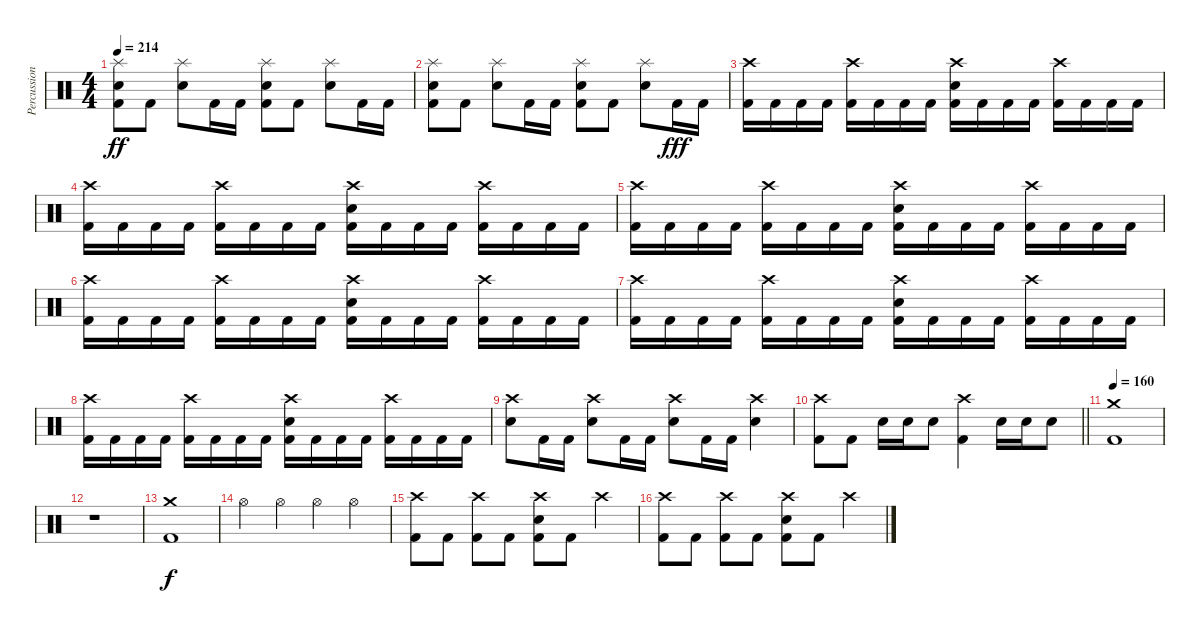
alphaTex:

\track ("Percussion" "Percussion") {instrument percussion}
\staff {score}
\articulation defaults
\ts (4 4)
\tempo 214
\clef neutral
\ks c
("Splash (hit)" "Electric Snare (hit)" "Kick (hit) 2").8{dy ff} "Kick (hit) 2".8 ("Splash (hit)" "Electric Snare (hit)").8 "Kick (hit) 2".16 "Kick (hit) 2".16 ("Splash (hit)" "Electric Snare (hit)" "Kick (hit) 2").8 "Kick (hit) 2".8 ("Splash (hit)" "Electric Snare (hit)").8 "Kick (hit) 2".16 "Kick (hit) 2".16 |
("Splash (hit)" "Electric Snare (hit)" "Kick (hit) 2").8 "Kick (hit) 2".8 ("Splash (hit)" "Electric Snare (hit)").8 "Kick (hit) 2".16 "Kick (hit) 2".16 ("Splash (hit)" "Electric Snare (hit)" "Kick (hit) 2").8 "Kick (hit) 2".8 ("Splash (hit)" "Electric Snare (hit)").8 "Kick (hit) 2".16{dy fff} "Kick (hit) 2".16 |
("Crash high (hit)" "Kick (hit) 2").16 "Kick (hit) 2".16 "Kick (hit) 2".16 "Kick (hit) 2".16 ("Crash high (hit)" "Kick (hit) 2").16 "Kick (hit) 2".16 "Kick (hit) 2".16 "Kick (hit) 2".16 ("Crash high (hit)" "Electric Snare (hit)" "Kick (hit) 2").16 "Kick (hit) 2".16 "Kick (hit) 2".16 "Kick (hit) 2".16 ("Crash high (hit)" "Kick (hit) 2").16 "Kick (hit) 2".16 "Kick (hit) 2".16 "Kick (hit) 2".16 |
("Crash high (hit)" "Kick (hit) 2").16 "Kick (hit) 2".16 "Kick (hit) 2".16 "Kick (hit) 2".16 ("Crash high (hit)" "Kick (hit) 2").16 "Kick (hit) 2".16 "Kick (hit) 2".16 "Kick (hit) 2".16 ("Crash high (hit)" "Electric Snare (hit)" "Kick (hit) 2").16 "Kick (hit) 2".16 "Kick (hit) 2".16 "Kick (hit) 2".16 ("Crash high (hit)" "Kick (hit) 2").16 "Kick (hit) 2".16 "Kick (hit) 2".16 "Kick (hit) 2".16 |
("Crash high (hit)" "Kick (hit) 2").16 "Kick (hit) 2".16 "Kick (hit) 2".16 "Kick (hit) 2".16 ("Crash high (hit)" "Kick (hit) 2").16 "Kick (hit) 2".16 "Kick (hit) 2".16 "Kick (hit) 2".16 ("Crash high (hit)" "Electric Snare (hit)" "Kick (hit) 2").16 "Kick (hit) 2".16 "Kick (hit) 2".16 "Kick (hit) 2".16 ("Crash high (hit)" "Kick (hit) 2").16 "Kick (hit) 2".16 "Kick (hit) 2".16 "Kick (hit) 2".16 |
("Crash high (hit)" "Kick (hit) 2").16 "Kick (hit) 2".16 "Kick (hit) 2".16 "Kick (hit) 2".16 ("Crash high (hit)" "Kick (hit) 2").16 "Kick (hit) 2".16 "Kick (hit) 2".16 "Kick (hit) 2".16 ("Crash high (hit)" "Electric Snare (hit)" "Kick (hit) 2").16 "Kick (hit) 2".16 "Kick (hit) 2".16 "Kick (hit) 2".16 ("Crash high (hit)" "Kick (hit) 2").16 "Kick (hit) 2".16 "Kick (hit) 2".16 "Kick (hit) 2".16 |
("Crash high (hit)" "Kick (hit) 2").16 "Kick (hit) 2".16 "Kick (hit) 2".16 "Kick (hit) 2".16 ("Crash high (hit)" "Kick (hit) 2").16 "Kick (hit) 2".16 "Kick (hit) 2".16 "Kick (hit) 2".16 ("Crash high (hit)" "Electric Snare (hit)" "Kick (hit) 2").16 "Kick (hit) 2".16 "Kick (hit) 2".16 "Kick (hit) 2".16 ("Crash high (hit)" "Kick (hit) 2").16 "Kick (hit) 2".16 "Kick (hit) 2".16 "Kick (hit) 2".16 |
("Crash high (hit)" "Kick (hit) 2").16 "Kick (hit) 2".16 "Kick (hit) 2".16 "Kick (hit) 2".16 ("Crash high (hit)" "Kick (hit) 2").16 "Kick (hit) 2".16 "Kick (hit) 2".16 "Kick (hit) 2".16 ("Crash high (hit)" "Electric Snare (hit)" "Kick (hit) 2").16 "Kick (hit) 2".16 "Kick (hit) 2".16 "Kick (hit) 2".16 ("Crash high (hit)" "Kick (hit) 2").16 "Kick (hit) 2".16 "Kick (hit) 2".16 "Kick (hit) 2".16 |
("Crash high (hit)" "Electric Snare (hit)").8 "Kick (hit) 2".16 "Kick (hit) 2".16 ("Crash high (hit)" "Electric Snare (hit)").8 "Kick (hit) 2".16 "Kick (hit) 2".16 ("Crash high (hit)" "Electric Snare (hit)").8 "Kick (hit) 2".16 "Kick (hit) 2".16 ("Crash high (hit)" "Electric Snare (hit)").4 |
\barLineRight lightlight
("Crash high (hit)" "Kick (hit) 2").8 "Kick (hit) 2".8 "Electric Snare (hit)".16 "Electric Snare (hit)".16 "Electric Snare (hit)".8 ("Crash high (hit)" "Kick (hit) 2").4 "Electric Snare (hit)".16 "Electric Snare (hit)".16 "Electric Snare (hit)".8 |
\section ("" "")
\tempo 160
("Crash medium (hit)" "Kick (hit) 2").1 |
r.1 |
("Crash medium (hit)" "Kick (hit) 2").1{dy f} |
"Hi-Hat (open)".4 "Hi-Hat (open)".4 "Hi-Hat (open)".4 "Hi-Hat (open)".4 |
("Crash high (hit)" "Kick (hit) 2").8 "Kick (hit) 2".8 ("Crash high (hit)" "Kick (hit) 2").8 "Kick (hit) 2".8 ("Crash high (hit)" "Electric Snare (hit)" "Kick (hit) 2").8 "Kick (hit) 2".8 "Crash high (hit)".4 |
("Crash high (hit)" "Kick (hit) 2").8 "Kick (hit) 2".8 ("Crash high (hit)" "Kick (hit) 2").8 "Kick (hit) 2".8 ("Crash high (hit)" "Electric Snare (hit)" "Kick (hit) 2").8 "Kick (hit) 2".8 "Crash high (hit)".4
